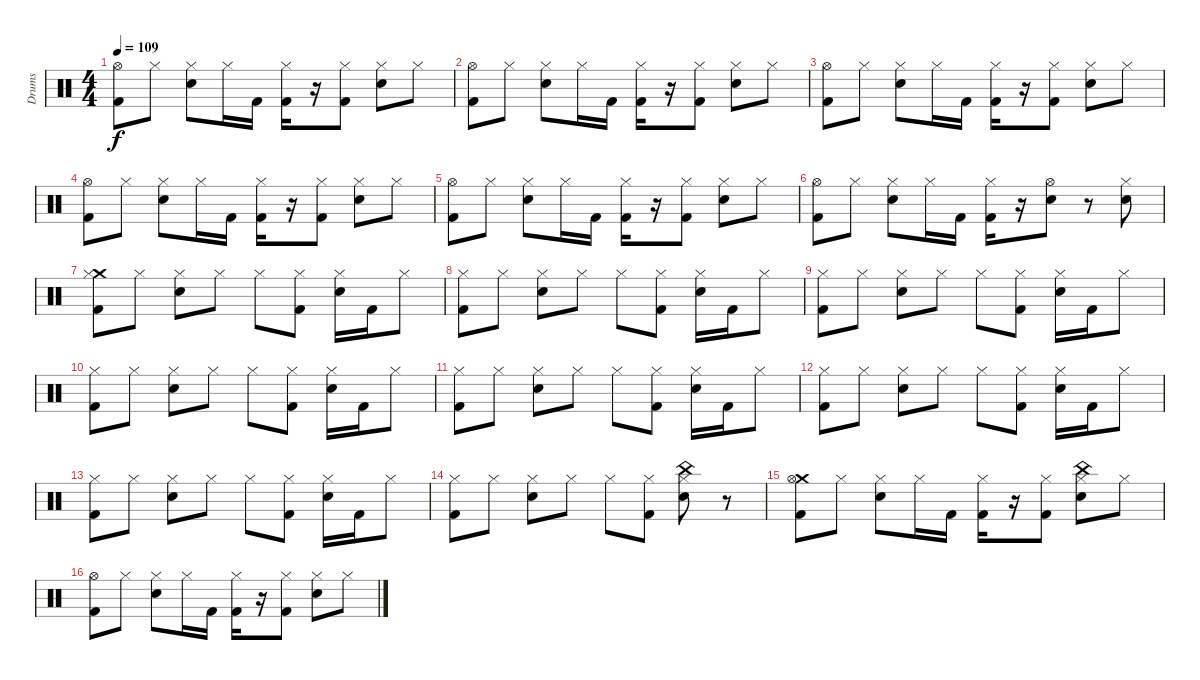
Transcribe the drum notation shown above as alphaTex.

\track ("Drums" "Drums") {instrument percussion}
\staff {score}
\articulation defaults
\ts (4 4)
\tempo 109
\clef neutral
\ks c
("Hi-Hat (open)" "Kick (hit) 2").8{dy f} "Hi-Hat (closed)".8 ("Hi-Hat (closed)" "Snare (hit) 2").8 "Hi-Hat (closed)".16 "Kick (hit) 2".16 ("Hi-Hat (closed)" "Kick (hit) 2").16 r.16 ("Hi-Hat (closed)" "Kick (hit) 2").8 ("Hi-Hat (closed)" "Snare (hit) 2").8 "Hi-Hat (closed)".8 |
("Hi-Hat (open)" "Kick (hit) 2").8 "Hi-Hat (closed)".8 ("Hi-Hat (closed)" "Snare (hit) 2").8 "Hi-Hat (closed)".16 "Kick (hit) 2".16 ("Hi-Hat (closed)" "Kick (hit) 2").16 r.16 ("Hi-Hat (closed)" "Kick (hit) 2").8 ("Hi-Hat (closed)" "Snare (hit) 2").8 "Hi-Hat (closed)".8 |
("Hi-Hat (open)" "Kick (hit) 2").8 "Hi-Hat (closed)".8 ("Hi-Hat (closed)" "Snare (hit) 2").8 "Hi-Hat (closed)".16 "Kick (hit) 2".16 ("Hi-Hat (closed)" "Kick (hit) 2").16 r.16 ("Hi-Hat (closed)" "Kick (hit) 2").8 ("Hi-Hat (closed)" "Snare (hit) 2").8 "Hi-Hat (closed)".8 |
("Hi-Hat (open)" "Kick (hit) 2").8 "Hi-Hat (closed)".8 ("Hi-Hat (closed)" "Snare (hit) 2").8 "Hi-Hat (closed)".16 "Kick (hit) 2".16 ("Hi-Hat (closed)" "Kick (hit) 2").16 r.16 ("Hi-Hat (closed)" "Kick (hit) 2").8 ("Hi-Hat (closed)" "Snare (hit) 2").8 "Hi-Hat (closed)".8 |
("Hi-Hat (open)" "Kick (hit) 2").8 "Hi-Hat (closed)".8 ("Hi-Hat (closed)" "Snare (hit) 2").8 "Hi-Hat (closed)".16 "Kick (hit) 2".16 ("Hi-Hat (closed)" "Kick (hit) 2").16 r.16 ("Hi-Hat (closed)" "Kick (hit) 2").8 ("Hi-Hat (closed)" "Snare (hit) 2").8 "Hi-Hat (closed)".8 |
("Hi-Hat (open)" "Kick (hit) 2").8 "Hi-Hat (closed)".8 ("Hi-Hat (closed)" "Snare (hit) 2").8 "Hi-Hat (closed)".16 "Kick (hit) 2".16 ("Hi-Hat (closed)" "Kick (hit) 2").16 r.16 ("Hi-Hat (open)" "Snare (hit) 2").8 r.8 ("Snare (hit) 2" "Hi-Hat (closed)").8 |
("Crash medium (hit)" "Hi-Hat (closed)" "Kick (hit) 2").8 "Hi-Hat (closed)".8 ("Hi-Hat (closed)" "Snare (hit) 2").8 "Hi-Hat (closed)".8 "Hi-Hat (closed)".8 ("Hi-Hat (closed)" "Kick (hit) 2").8 ("Hi-Hat (closed)" "Snare (hit) 2").16 "Kick (hit) 2".16 "Hi-Hat (closed)".8 |
("Hi-Hat (closed)" "Kick (hit) 2").8 "Hi-Hat (closed)".8 ("Hi-Hat (closed)" "Snare (hit) 2").8 "Hi-Hat (closed)".8 "Hi-Hat (closed)".8 ("Hi-Hat (closed)" "Kick (hit) 2").8 ("Hi-Hat (closed)" "Snare (hit) 2").16 "Kick (hit) 2".16 "Hi-Hat (closed)".8 |
("Hi-Hat (closed)" "Kick (hit) 2").8 "Hi-Hat (closed)".8 ("Hi-Hat (closed)" "Snare (hit) 2").8 "Hi-Hat (closed)".8 "Hi-Hat (closed)".8 ("Hi-Hat (closed)" "Kick (hit) 2").8 ("Hi-Hat (closed)" "Snare (hit) 2").16 "Kick (hit) 2".16 "Hi-Hat (closed)".8 |
("Hi-Hat (closed)" "Kick (hit) 2").8 "Hi-Hat (closed)".8 ("Hi-Hat (closed)" "Snare (hit) 2").8 "Hi-Hat (closed)".8 "Hi-Hat (closed)".8 ("Hi-Hat (closed)" "Kick (hit) 2").8 ("Hi-Hat (closed)" "Snare (hit) 2").16 "Kick (hit) 2".16 "Hi-Hat (closed)".8 |
("Hi-Hat (closed)" "Kick (hit) 2").8 "Hi-Hat (closed)".8 ("Hi-Hat (closed)" "Snare (hit) 2").8 "Hi-Hat (closed)".8 "Hi-Hat (closed)".8 ("Hi-Hat (closed)" "Kick (hit) 2").8 ("Hi-Hat (closed)" "Snare (hit) 2").16 "Kick (hit) 2".16 "Hi-Hat (closed)".8 |
("Hi-Hat (closed)" "Kick (hit) 2").8 "Hi-Hat (closed)".8 ("Hi-Hat (closed)" "Snare (hit) 2").8 "Hi-Hat (closed)".8 "Hi-Hat (closed)".8 ("Hi-Hat (closed)" "Kick (hit) 2").8 ("Hi-Hat (closed)" "Snare (hit) 2").16 "Kick (hit) 2".16 "Hi-Hat (closed)".8 |
("Hi-Hat (closed)" "Kick (hit) 2").8 "Hi-Hat (closed)".8 ("Hi-Hat (closed)" "Snare (hit) 2").8 "Hi-Hat (closed)".8 "Hi-Hat (closed)".8 ("Hi-Hat (closed)" "Kick (hit) 2").8 ("Hi-Hat (closed)" "Snare (hit) 2").16 "Kick (hit) 2".16 "Hi-Hat (closed)".8 |
("Hi-Hat (closed)" "Kick (hit) 2").8 "Hi-Hat (closed)".8 ("Hi-Hat (closed)" "Snare (hit) 2").8 "Hi-Hat (closed)".8 "Hi-Hat (closed)".8 ("Hi-Hat (closed)" "Kick (hit) 2").8 ("China (hit)" "Hi-Hat (closed)" "Snare (hit) 2").8 r.8 |
("Crash medium (hit)" "Hi-Hat (open)" "Kick (hit) 2").8 "Hi-Hat (closed)".8 ("Hi-Hat (closed)" "Snare (hit) 2").8 "Hi-Hat (closed)".16 "Kick (hit) 2".16 ("Hi-Hat (closed)" "Kick (hit) 2").16 r.16 ("Hi-Hat (closed)" "Kick (hit) 2").8 ("China (hit)" "Hi-Hat (closed)" "Snare (hit) 2").8 "Hi-Hat (closed)".8 |
("Hi-Hat (open)" "Kick (hit) 2").8 "Hi-Hat (closed)".8 ("Hi-Hat (closed)" "Snare (hit) 2").8 "Hi-Hat (closed)".16 "Kick (hit) 2".16 ("Hi-Hat (closed)" "Kick (hit) 2").16 r.16 ("Hi-Hat (closed)" "Kick (hit) 2").8 ("Hi-Hat (closed)" "Snare (hit) 2").8 "Hi-Hat (closed)".8
